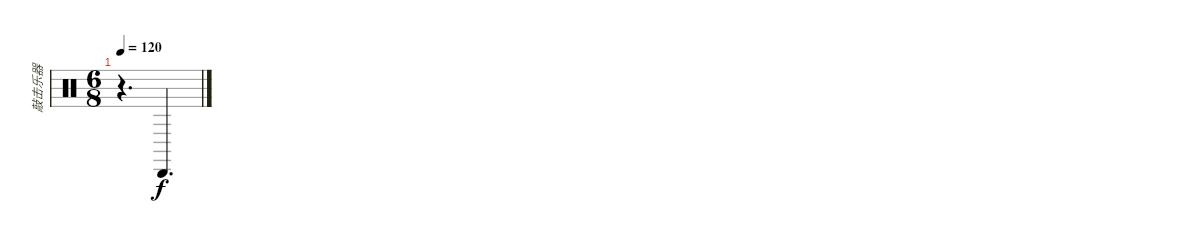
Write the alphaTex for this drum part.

\track ("敲击乐器" "敲击乐器") {instrument percussion}
\staff {score}
\articulation defaults
\ts (6 8)
\tempo 120
\clef neutral
\ks c
r.4{d dy f} "Cabasa (hit)".4{d}
